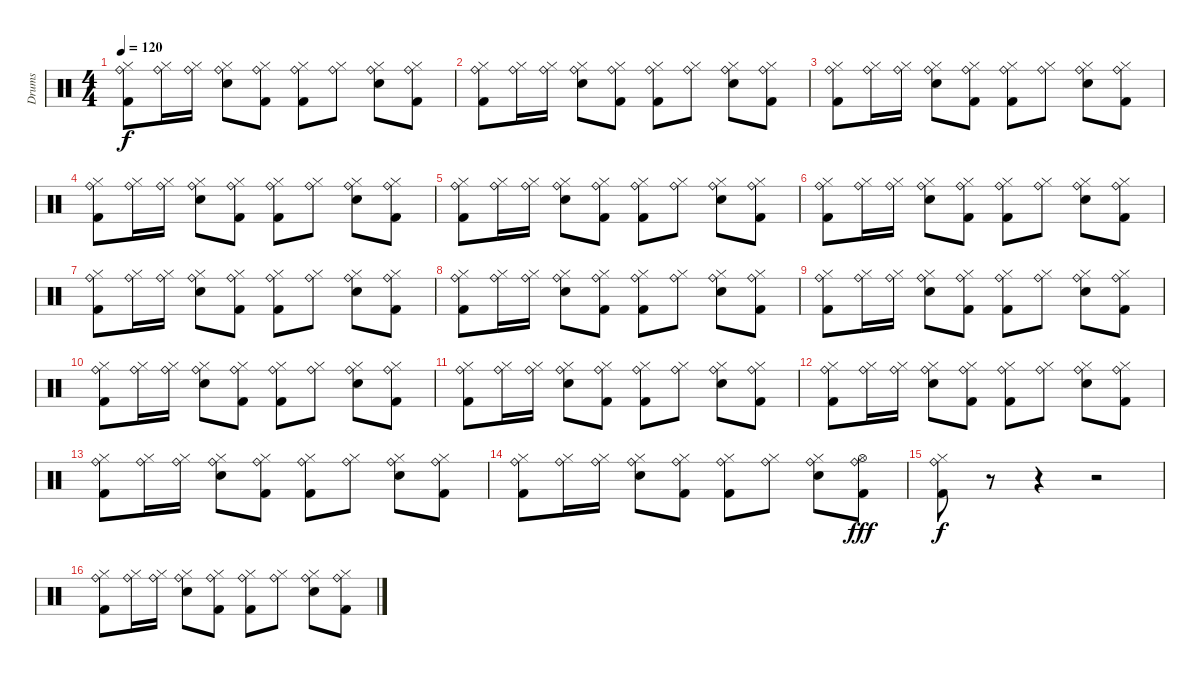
\track ("Drums" "Drums") {instrument percussion}
\staff {score}
\articulation defaults
\ts (4 4)
\tempo 120
\clef neutral
\ks c
("Ride (bell)" "Hi-Hat (closed)" "Kick (hit) 2").8{dy f} ("Ride (bell)" "Hi-Hat (closed)").16 ("Ride (bell)" "Hi-Hat (closed)").16 ("Ride (bell)" "Hi-Hat (closed)" "Snare (hit) 2").8 ("Ride (bell)" "Hi-Hat (closed)" "Kick (hit) 2").8 ("Ride (bell)" "Hi-Hat (closed)" "Kick (hit) 2").8 ("Ride (bell)" "Hi-Hat (closed)").8 ("Ride (bell)" "Hi-Hat (closed)" "Snare (hit) 2").8 ("Ride (bell)" "Hi-Hat (closed)" "Kick (hit) 2").8 |
("Ride (bell)" "Hi-Hat (closed)" "Kick (hit) 2").8 ("Ride (bell)" "Hi-Hat (closed)").16 ("Ride (bell)" "Hi-Hat (closed)").16 ("Ride (bell)" "Hi-Hat (closed)" "Snare (hit) 2").8 ("Ride (bell)" "Hi-Hat (closed)" "Kick (hit) 2").8 ("Ride (bell)" "Hi-Hat (closed)" "Kick (hit) 2").8 ("Ride (bell)" "Hi-Hat (closed)").8 ("Ride (bell)" "Hi-Hat (closed)" "Snare (hit) 2").8 ("Ride (bell)" "Hi-Hat (closed)" "Kick (hit) 2").8 |
("Ride (bell)" "Hi-Hat (closed)" "Kick (hit) 2").8 ("Ride (bell)" "Hi-Hat (closed)").16 ("Ride (bell)" "Hi-Hat (closed)").16 ("Ride (bell)" "Hi-Hat (closed)" "Snare (hit) 2").8 ("Ride (bell)" "Hi-Hat (closed)" "Kick (hit) 2").8 ("Ride (bell)" "Hi-Hat (closed)" "Kick (hit) 2").8 ("Ride (bell)" "Hi-Hat (closed)").8 ("Ride (bell)" "Hi-Hat (closed)" "Snare (hit) 2").8 ("Ride (bell)" "Hi-Hat (closed)" "Kick (hit) 2").8 |
("Ride (bell)" "Hi-Hat (closed)" "Kick (hit) 2").8 ("Ride (bell)" "Hi-Hat (closed)").16 ("Ride (bell)" "Hi-Hat (closed)").16 ("Ride (bell)" "Hi-Hat (closed)" "Snare (hit) 2").8 ("Ride (bell)" "Hi-Hat (closed)" "Kick (hit) 2").8 ("Ride (bell)" "Hi-Hat (closed)" "Kick (hit) 2").8 ("Ride (bell)" "Hi-Hat (closed)").8 ("Ride (bell)" "Hi-Hat (closed)" "Snare (hit) 2").8 ("Ride (bell)" "Hi-Hat (closed)" "Kick (hit) 2").8 |
("Ride (bell)" "Hi-Hat (closed)" "Kick (hit) 2").8 ("Ride (bell)" "Hi-Hat (closed)").16 ("Ride (bell)" "Hi-Hat (closed)").16 ("Ride (bell)" "Hi-Hat (closed)" "Snare (hit) 2").8 ("Ride (bell)" "Hi-Hat (closed)" "Kick (hit) 2").8 ("Ride (bell)" "Hi-Hat (closed)" "Kick (hit) 2").8 ("Ride (bell)" "Hi-Hat (closed)").8 ("Ride (bell)" "Hi-Hat (closed)" "Snare (hit) 2").8 ("Ride (bell)" "Hi-Hat (closed)" "Kick (hit) 2").8 |
("Ride (bell)" "Hi-Hat (closed)" "Kick (hit) 2").8 ("Ride (bell)" "Hi-Hat (closed)").16 ("Ride (bell)" "Hi-Hat (closed)").16 ("Ride (bell)" "Hi-Hat (closed)" "Snare (hit) 2").8 ("Ride (bell)" "Hi-Hat (closed)" "Kick (hit) 2").8 ("Ride (bell)" "Hi-Hat (closed)" "Kick (hit) 2").8 ("Ride (bell)" "Hi-Hat (closed)").8 ("Ride (bell)" "Hi-Hat (closed)" "Snare (hit) 2").8 ("Ride (bell)" "Hi-Hat (closed)" "Kick (hit) 2").8 |
("Ride (bell)" "Hi-Hat (closed)" "Kick (hit) 2").8 ("Ride (bell)" "Hi-Hat (closed)").16 ("Ride (bell)" "Hi-Hat (closed)").16 ("Ride (bell)" "Hi-Hat (closed)" "Snare (hit) 2").8 ("Ride (bell)" "Hi-Hat (closed)" "Kick (hit) 2").8 ("Ride (bell)" "Hi-Hat (closed)" "Kick (hit) 2").8 ("Ride (bell)" "Hi-Hat (closed)").8 ("Ride (bell)" "Hi-Hat (closed)" "Snare (hit) 2").8 ("Ride (bell)" "Hi-Hat (closed)" "Kick (hit) 2").8 |
("Ride (bell)" "Hi-Hat (closed)" "Kick (hit) 2").8 ("Ride (bell)" "Hi-Hat (closed)").16 ("Ride (bell)" "Hi-Hat (closed)").16 ("Ride (bell)" "Hi-Hat (closed)" "Snare (hit) 2").8 ("Ride (bell)" "Hi-Hat (closed)" "Kick (hit) 2").8 ("Ride (bell)" "Hi-Hat (closed)" "Kick (hit) 2").8 ("Ride (bell)" "Hi-Hat (closed)").8 ("Ride (bell)" "Hi-Hat (closed)" "Snare (hit) 2").8 ("Ride (bell)" "Hi-Hat (closed)" "Kick (hit) 2").8 |
("Ride (bell)" "Hi-Hat (closed)" "Kick (hit) 2").8 ("Ride (bell)" "Hi-Hat (closed)").16 ("Ride (bell)" "Hi-Hat (closed)").16 ("Ride (bell)" "Hi-Hat (closed)" "Snare (hit) 2").8 ("Ride (bell)" "Hi-Hat (closed)" "Kick (hit) 2").8 ("Ride (bell)" "Hi-Hat (closed)" "Kick (hit) 2").8 ("Ride (bell)" "Hi-Hat (closed)").8 ("Ride (bell)" "Hi-Hat (closed)" "Snare (hit) 2").8 ("Ride (bell)" "Hi-Hat (closed)" "Kick (hit) 2").8 |
("Ride (bell)" "Hi-Hat (closed)" "Kick (hit) 2").8 ("Ride (bell)" "Hi-Hat (closed)").16 ("Ride (bell)" "Hi-Hat (closed)").16 ("Ride (bell)" "Hi-Hat (closed)" "Snare (hit) 2").8 ("Ride (bell)" "Hi-Hat (closed)" "Kick (hit) 2").8 ("Ride (bell)" "Hi-Hat (closed)" "Kick (hit) 2").8 ("Ride (bell)" "Hi-Hat (closed)").8 ("Ride (bell)" "Hi-Hat (closed)" "Snare (hit) 2").8 ("Ride (bell)" "Hi-Hat (closed)" "Kick (hit) 2").8 |
("Ride (bell)" "Hi-Hat (closed)" "Kick (hit) 2").8 ("Ride (bell)" "Hi-Hat (closed)").16 ("Ride (bell)" "Hi-Hat (closed)").16 ("Ride (bell)" "Hi-Hat (closed)" "Snare (hit) 2").8 ("Ride (bell)" "Hi-Hat (closed)" "Kick (hit) 2").8 ("Ride (bell)" "Hi-Hat (closed)" "Kick (hit) 2").8 ("Ride (bell)" "Hi-Hat (closed)").8 ("Ride (bell)" "Hi-Hat (closed)" "Snare (hit) 2").8 ("Ride (bell)" "Hi-Hat (closed)" "Kick (hit) 2").8 |
("Ride (bell)" "Hi-Hat (closed)" "Kick (hit) 2").8 ("Ride (bell)" "Hi-Hat (closed)").16 ("Ride (bell)" "Hi-Hat (closed)").16 ("Ride (bell)" "Hi-Hat (closed)" "Snare (hit) 2").8 ("Ride (bell)" "Hi-Hat (closed)" "Kick (hit) 2").8 ("Ride (bell)" "Hi-Hat (closed)" "Kick (hit) 2").8 ("Ride (bell)" "Hi-Hat (closed)").8 ("Ride (bell)" "Hi-Hat (closed)" "Snare (hit) 2").8 ("Ride (bell)" "Hi-Hat (closed)" "Kick (hit) 2").8 |
("Ride (bell)" "Hi-Hat (closed)" "Kick (hit) 2").8 ("Ride (bell)" "Hi-Hat (closed)").16 ("Ride (bell)" "Hi-Hat (closed)").16 ("Ride (bell)" "Hi-Hat (closed)" "Snare (hit) 2").8 ("Ride (bell)" "Hi-Hat (closed)" "Kick (hit) 2").8 ("Ride (bell)" "Hi-Hat (closed)" "Kick (hit) 2").8 ("Ride (bell)" "Hi-Hat (closed)").8 ("Ride (bell)" "Hi-Hat (closed)" "Snare (hit) 2").8 ("Ride (bell)" "Hi-Hat (closed)" "Kick (hit) 2").8 |
("Ride (bell)" "Hi-Hat (closed)" "Kick (hit) 2").8 ("Ride (bell)" "Hi-Hat (closed)").16 ("Ride (bell)" "Hi-Hat (closed)").16 ("Ride (bell)" "Hi-Hat (closed)" "Snare (hit) 2").8 ("Ride (bell)" "Hi-Hat (closed)" "Kick (hit) 2").8 ("Ride (bell)" "Hi-Hat (closed)" "Kick (hit) 2").8 ("Ride (bell)" "Hi-Hat (closed)").8 ("Ride (bell)" "Hi-Hat (closed)" "Snare (hit) 2").8 ("Ride (bell)" "Hi-Hat (open)" "Kick (hit) 2").8{dy fff} |
("Ride (bell)" "Hi-Hat (closed)" "Kick (hit) 2").8{dy f} r.8 r.4 r.2 |
("Ride (bell)" "Hi-Hat (closed)" "Kick (hit) 2").8 ("Ride (bell)" "Hi-Hat (closed)").16 ("Ride (bell)" "Hi-Hat (closed)").16 ("Ride (bell)" "Hi-Hat (closed)" "Snare (hit) 2").8 ("Ride (bell)" "Hi-Hat (closed)" "Kick (hit) 2").8 ("Ride (bell)" "Hi-Hat (closed)" "Kick (hit) 2").8 ("Ride (bell)" "Hi-Hat (closed)").8 ("Ride (bell)" "Hi-Hat (closed)" "Snare (hit) 2").8 ("Ride (bell)" "Hi-Hat (closed)" "Kick (hit) 2").8
